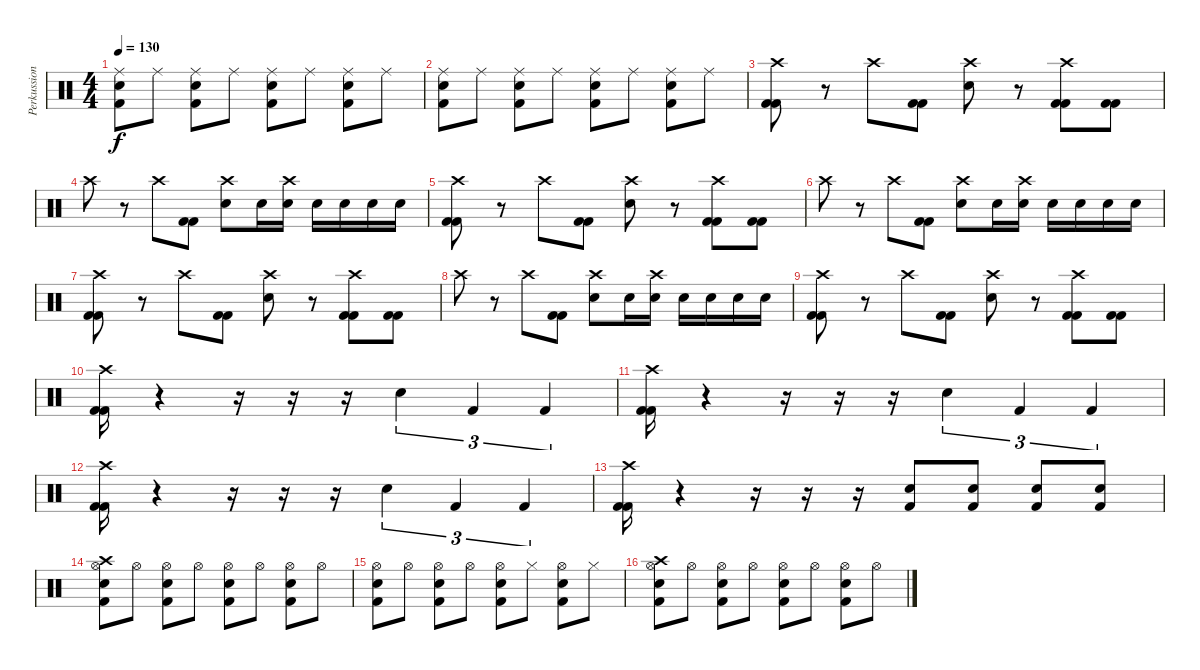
\track ("Perkussion" "Perkussion") {instrument percussion}
\staff {score}
\articulation defaults
\ts (4 4)
\tempo 130
\clef neutral
\ks c
("Ride (middle)" "Electric Snare (hit)" "Kick (hit) 2").8{dy f} "Ride (middle)".8 ("Ride (middle)" "Electric Snare (hit)" "Kick (hit) 2").8 "Ride (middle)".8 ("Ride (middle)" "Electric Snare (hit)" "Kick (hit) 2").8 "Ride (middle)".8 ("Ride (middle)" "Electric Snare (hit)" "Kick (hit) 2").8 "Ride (middle)".8 |
("Ride (middle)" "Electric Snare (hit)" "Kick (hit) 2").8 "Ride (middle)".8 ("Ride (middle)" "Electric Snare (hit)" "Kick (hit) 2").8 "Ride (middle)".8 ("Ride (middle)" "Electric Snare (hit)" "Kick (hit) 2").8 "Ride (middle)".8 ("Ride (middle)" "Electric Snare (hit)" "Kick (hit) 2").8 "Ride (middle)".8 |
("Crash high (hit)" "Kick (hit) 2" "Kick (hit) 2").8 r.8 "Crash high (hit)".8 ("Kick (hit) 2" "Kick (hit) 2").8 ("Crash high (hit)" "Electric Snare (hit)").8 r.8 ("Crash high (hit)" "Kick (hit) 2" "Kick (hit) 2").8 ("Kick (hit) 2" "Kick (hit) 2").8 |
"Crash high (hit)".8 r.8 "Crash high (hit)".8 ("Kick (hit) 2" "Kick (hit) 2").8 ("Crash high (hit)" "Electric Snare (hit)").8 "Electric Snare (hit)".16 ("Crash high (hit)" "Electric Snare (hit)").16 "Electric Snare (hit)".16 "Electric Snare (hit)".16 "Electric Snare (hit)".16 "Electric Snare (hit)".16 |
("Crash high (hit)" "Kick (hit) 2" "Kick (hit) 2").8 r.8 "Crash high (hit)".8 ("Kick (hit) 2" "Kick (hit) 2").8 ("Crash high (hit)" "Electric Snare (hit)").8 r.8 ("Crash high (hit)" "Kick (hit) 2" "Kick (hit) 2").8 ("Kick (hit) 2" "Kick (hit) 2").8 |
"Crash high (hit)".8 r.8 "Crash high (hit)".8 ("Kick (hit) 2" "Kick (hit) 2").8 ("Crash high (hit)" "Electric Snare (hit)").8 "Electric Snare (hit)".16 ("Crash high (hit)" "Electric Snare (hit)").16 "Electric Snare (hit)".16 "Electric Snare (hit)".16 "Electric Snare (hit)".16 "Electric Snare (hit)".16 |
("Crash high (hit)" "Kick (hit) 2" "Kick (hit) 2").8 r.8 "Crash high (hit)".8 ("Kick (hit) 2" "Kick (hit) 2").8 ("Crash high (hit)" "Electric Snare (hit)").8 r.8 ("Crash high (hit)" "Kick (hit) 2" "Kick (hit) 2").8 ("Kick (hit) 2" "Kick (hit) 2").8 |
"Crash high (hit)".8 r.8 "Crash high (hit)".8 ("Kick (hit) 2" "Kick (hit) 2").8 ("Crash high (hit)" "Electric Snare (hit)").8 "Electric Snare (hit)".16 ("Crash high (hit)" "Electric Snare (hit)").16 "Electric Snare (hit)".16 "Electric Snare (hit)".16 "Electric Snare (hit)".16 "Electric Snare (hit)".16 |
("Crash high (hit)" "Kick (hit) 2" "Kick (hit) 2").8 r.8 "Crash high (hit)".8 ("Kick (hit) 2" "Kick (hit) 2").8 ("Crash high (hit)" "Electric Snare (hit)").8 r.8 ("Crash high (hit)" "Kick (hit) 2" "Kick (hit) 2").8 ("Kick (hit) 2" "Kick (hit) 2").8 |
("Crash high (hit)" "Kick (hit) 2" "Kick (hit) 2").16 r.4 r.16 r.16 r.16 "Electric Snare (hit)".4{tu (3 2)} "Kick (hit) 2".4{tu (3 2)} "Kick (hit) 2".4{tu (3 2)} |
("Crash high (hit)" "Kick (hit) 2" "Kick (hit) 2").16 r.4 r.16 r.16 r.16 "Electric Snare (hit)".4{tu (3 2)} "Kick (hit) 2".4{tu (3 2)} "Kick (hit) 2".4{tu (3 2)} |
("Crash high (hit)" "Kick (hit) 2" "Kick (hit) 2").16 r.4 r.16 r.16 r.16 "Electric Snare (hit)".4{tu (3 2)} "Kick (hit) 2".4{tu (3 2)} "Kick (hit) 2".4{tu (3 2)} |
("Crash high (hit)" "Kick (hit) 2" "Kick (hit) 2").16 r.4 r.16 r.16 r.16 ("Electric Snare (hit)" "Kick (hit) 2").8 ("Electric Snare (hit)" "Kick (hit) 2").8 ("Electric Snare (hit)" "Kick (hit) 2").8 ("Electric Snare (hit)" "Kick (hit) 2").8 |
("Hi-Hat (open)" "Crash high (hit)" "Electric Snare (hit)" "Kick (hit) 2").8 "Hi-Hat (open)".8 ("Hi-Hat (open)" "Electric Snare (hit)" "Kick (hit) 2").8 "Hi-Hat (open)".8 ("Hi-Hat (open)" "Electric Snare (hit)" "Kick (hit) 2").8 "Hi-Hat (open)".8 ("Hi-Hat (open)" "Electric Snare (hit)" "Kick (hit) 2").8 "Hi-Hat (open)".8 |
("Hi-Hat (open)" "Electric Snare (hit)" "Kick (hit) 2").8 "Hi-Hat (open)".8 ("Hi-Hat (open)" "Electric Snare (hit)" "Kick (hit) 2").8 "Hi-Hat (open)".8 ("Hi-Hat (open)" "Electric Snare (hit)" "Kick (hit) 2").8 "Hi-Hat (closed)".8 ("Hi-Hat (open)" "Electric Snare (hit)" "Kick (hit) 2").8 "Hi-Hat (closed)".8 |
("Hi-Hat (open)" "Crash high (hit)" "Electric Snare (hit)" "Kick (hit) 2").8 "Hi-Hat (open)".8 ("Hi-Hat (open)" "Electric Snare (hit)" "Kick (hit) 2").8 "Hi-Hat (open)".8 ("Hi-Hat (open)" "Electric Snare (hit)" "Kick (hit) 2").8 "Hi-Hat (open)".8 ("Hi-Hat (open)" "Electric Snare (hit)" "Kick (hit) 2").8 "Hi-Hat (open)".8
